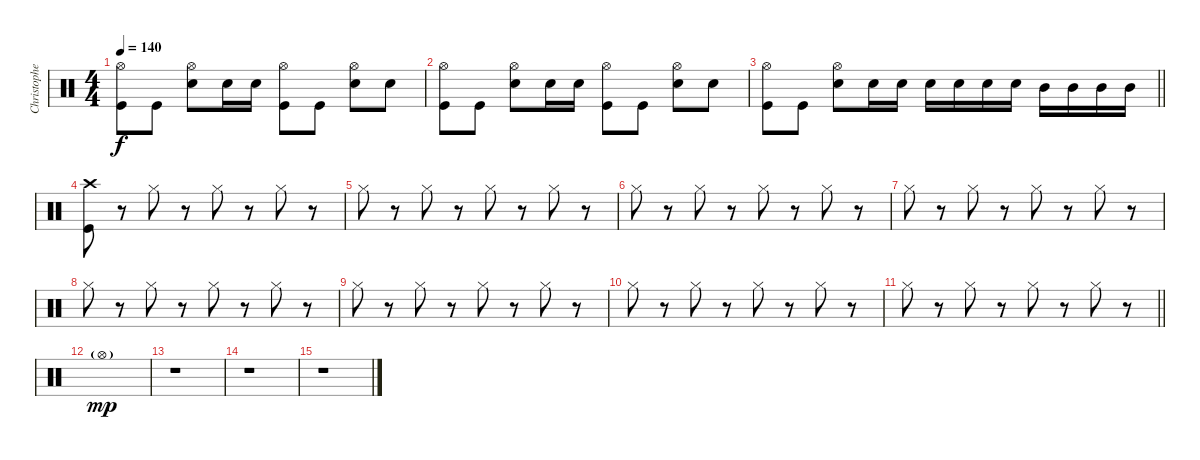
\track ("Christopher - Drums" "Christophe") {instrument percussion}
\staff {score}
\articulation defaults
\ts (4 4)
\tempo 140
\clef neutral
\ks c
("Hi-Hat (open)" "Kick (hit)").8{dy f} "Kick (hit)".8 ("Hi-Hat (open)" "Snare (hit) 2").8 "Snare (hit) 2".16 "Snare (hit) 2".16 ("Hi-Hat (open)" "Kick (hit)").8 "Kick (hit)".8 ("Hi-Hat (open)" "Snare (hit) 2").8 "Snare (hit) 2".8 |
("Hi-Hat (open)" "Kick (hit)").8 "Kick (hit)".8 ("Hi-Hat (open)" "Snare (hit) 2").8 "Snare (hit) 2".16 "Snare (hit) 2".16 ("Hi-Hat (open)" "Kick (hit)").8 "Kick (hit)".8 ("Hi-Hat (open)" "Snare (hit) 2").8 "Snare (hit) 2".8 |
\barLineRight lightlight
("Hi-Hat (open)" "Kick (hit)").8 "Kick (hit)".8 ("Hi-Hat (open)" "Snare (hit) 2").8 "Snare (hit) 2".16 "Snare (hit) 2".16 "Snare (hit) 2".16 "Snare (hit) 2".16 "Snare (hit) 2".16 "Snare (hit) 2".16 "Mid Tom (hit)".16 "Mid Tom (hit)".16 "Mid Tom (hit)".16 "Mid Tom (hit)".16 |
("Crash high (hit)" "Kick (hit)").8 r.8 "Hi-Hat (closed)".8 r.8 "Hi-Hat (closed)".8 r.8 "Hi-Hat (closed)".8 r.8 |
"Hi-Hat (closed)".8 r.8 "Hi-Hat (closed)".8 r.8 "Hi-Hat (closed)".8 r.8 "Hi-Hat (closed)".8 r.8 |
"Hi-Hat (closed)".8 r.8 "Hi-Hat (closed)".8 r.8 "Hi-Hat (closed)".8 r.8 "Hi-Hat (closed)".8 r.8 |
"Hi-Hat (closed)".8 r.8 "Hi-Hat (closed)".8 r.8 "Hi-Hat (closed)".8 r.8 "Hi-Hat (closed)".8 r.8 |
"Hi-Hat (closed)".8 r.8 "Hi-Hat (closed)".8 r.8 "Hi-Hat (closed)".8 r.8 "Hi-Hat (closed)".8 r.8 |
"Hi-Hat (closed)".8 r.8 "Hi-Hat (closed)".8 r.8 "Hi-Hat (closed)".8 r.8 "Hi-Hat (closed)".8 r.8 |
"Hi-Hat (closed)".8 r.8 "Hi-Hat (closed)".8 r.8 "Hi-Hat (closed)".8 r.8 "Hi-Hat (closed)".8 r.8 |
\barLineRight lightlight "Hi-Hat (closed)".8
r.8 "Hi-Hat (closed)".8 r.8 "Hi-Hat (closed)".8 r.8 "Hi-Hat (closed)".8 r.8 |
"Hi-Hat (open)"{g}.1{dy mp} |
r.1 |
r.1 |
r.1
